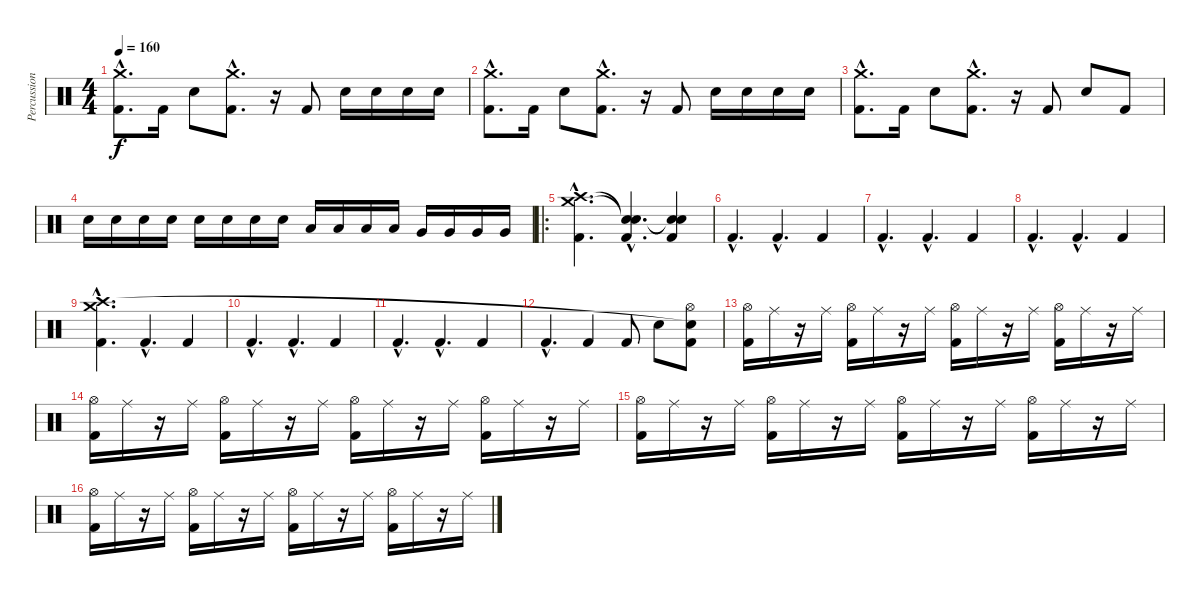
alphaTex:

\track ("Percussion" "Percussion") {instrument percussion}
\staff {score}
\articulation defaults
\ts (4 4)
\tempo 160
\clef neutral
\ks c
("Kick (hit) 2"{hac} "Crash medium (hit)"{hac}).8{d dy f} "Kick (hit) 2".16 "Electric Snare (hit)".8 ("Kick (hit) 2"{hac} "Crash medium (hit)"{hac}).8{d} r.16 "Kick (hit) 2".8 "Electric Snare (hit)".16 "Electric Snare (hit)".16 "Electric Snare (hit)".16 "Electric Snare (hit)".16 |
("Kick (hit) 2"{hac} "Crash medium (hit)"{hac}).8{d} "Kick (hit) 2".16 "Electric Snare (hit)".8 ("Kick (hit) 2"{hac} "Crash medium (hit)"{hac}).8{d} r.16 "Kick (hit) 2".8 "Electric Snare (hit)".16 "Electric Snare (hit)".16 "Electric Snare (hit)".16 "Electric Snare (hit)".16 |
("Kick (hit) 2"{hac} "Crash medium (hit)"{hac}).8{d} "Kick (hit) 2".16 "Electric Snare (hit)".8 ("Kick (hit) 2"{hac} "Crash medium (hit)"{hac}).8{d} r.16 "Kick (hit) 2".8 "Electric Snare (hit)".8 "Kick (hit) 2".8 |
"Electric Snare (hit)".16 "Electric Snare (hit)".16 "Electric Snare (hit)".16 "Electric Snare (hit)".16 "Electric Snare (hit)".16 "Electric Snare (hit)".16 "Electric Snare (hit)".16 "Electric Snare (hit)".16 "Low Tom (hit)".16 "Low Tom (hit)".16 "Low Tom (hit)".16 "Low Tom (hit)".16 "Very Low Tom (hit)".16 "Very Low Tom (hit)".16 "Very Low Tom (hit)".16 "Very Low Tom (hit)".16 |
\ro
("Kick (hit) 2"{hac} "Crash high (hit)"{hac} "Crash medium (hit)"{hac}).4{d} ("Kick (hit) 2"{hac} "Snare (hit)"{hac t} "Snare (hit)"{hac t}).4{d} ("Kick (hit) 2" "Snare (hit)"{t} "Snare (hit)"{t}).4 |
"Kick (hit) 2"{hac}.4{d} "Kick (hit) 2"{hac}.4{d} "Kick (hit) 2".4 |
"Kick (hit) 2"{hac}.4{d} "Kick (hit) 2"{hac}.4{d} "Kick (hit) 2".4 |
"Kick (hit) 2"{hac}.4{d} "Kick (hit) 2"{hac}.4{d} "Kick (hit) 2".4 |
("Kick (hit) 2"{hac} "Crash high (hit)"{hac} "Crash medium (hit)"{hac}).4{d} "Kick (hit) 2"{hac}.4{d} "Kick (hit) 2".4 |
"Kick (hit) 2"{hac}.4{d} "Kick (hit) 2"{hac}.4{d} "Kick (hit) 2".4 |
"Kick (hit) 2"{hac}.4{d} "Kick (hit) 2"{hac}.4{d} "Kick (hit) 2".4 |
"Kick (hit) 2"{hac}.4{d} "Kick (hit) 2".4 "Kick (hit) 2".8 "Electric Snare (hit)".8 ("Kick (hit) 2" "Snare (hit)"{t} "Hi-Hat (open)").8 |
("Kick (hit) 2" "Hi-Hat (open)").16 "Ride (middle)".16 r.16 "Ride (middle)".16 ("Kick (hit) 2" "Hi-Hat (open)").16 "Ride (middle)".16 r.16 "Ride (middle)".16 ("Kick (hit) 2" "Hi-Hat (open)").16 "Ride (middle)".16 r.16 "Ride (middle)".16 ("Kick (hit) 2" "Hi-Hat (open)").16 "Ride (middle)".16 r.16 "Ride (middle)".16 |
("Kick (hit) 2" "Hi-Hat (open)").16 "Ride (middle)".16 r.16 "Ride (middle)".16 ("Kick (hit) 2" "Hi-Hat (open)").16 "Ride (middle)".16 r.16 "Ride (middle)".16 ("Kick (hit) 2" "Hi-Hat (open)").16 "Ride (middle)".16 r.16 "Ride (middle)".16 ("Kick (hit) 2" "Hi-Hat (open)").16 "Ride (middle)".16 r.16 "Ride (middle)".16 |
("Kick (hit) 2" "Hi-Hat (open)").16 "Ride (middle)".16 r.16 "Ride (middle)".16 ("Kick (hit) 2" "Hi-Hat (open)").16 "Ride (middle)".16 r.16 "Ride (middle)".16 ("Kick (hit) 2" "Hi-Hat (open)").16 "Ride (middle)".16 r.16 "Ride (middle)".16 ("Kick (hit) 2" "Hi-Hat (open)").16 "Ride (middle)".16 r.16 "Ride (middle)".16 |
("Kick (hit) 2" "Hi-Hat (open)").16 "Ride (middle)".16 r.16 "Ride (middle)".16 ("Kick (hit) 2" "Hi-Hat (open)").16 "Ride (middle)".16 r.16 "Ride (middle)".16 ("Kick (hit) 2" "Hi-Hat (open)").16 "Ride (middle)".16 r.16 "Ride (middle)".16 ("Kick (hit) 2" "Hi-Hat (open)").16 "Ride (middle)".16 r.16 "Ride (middle)".16
